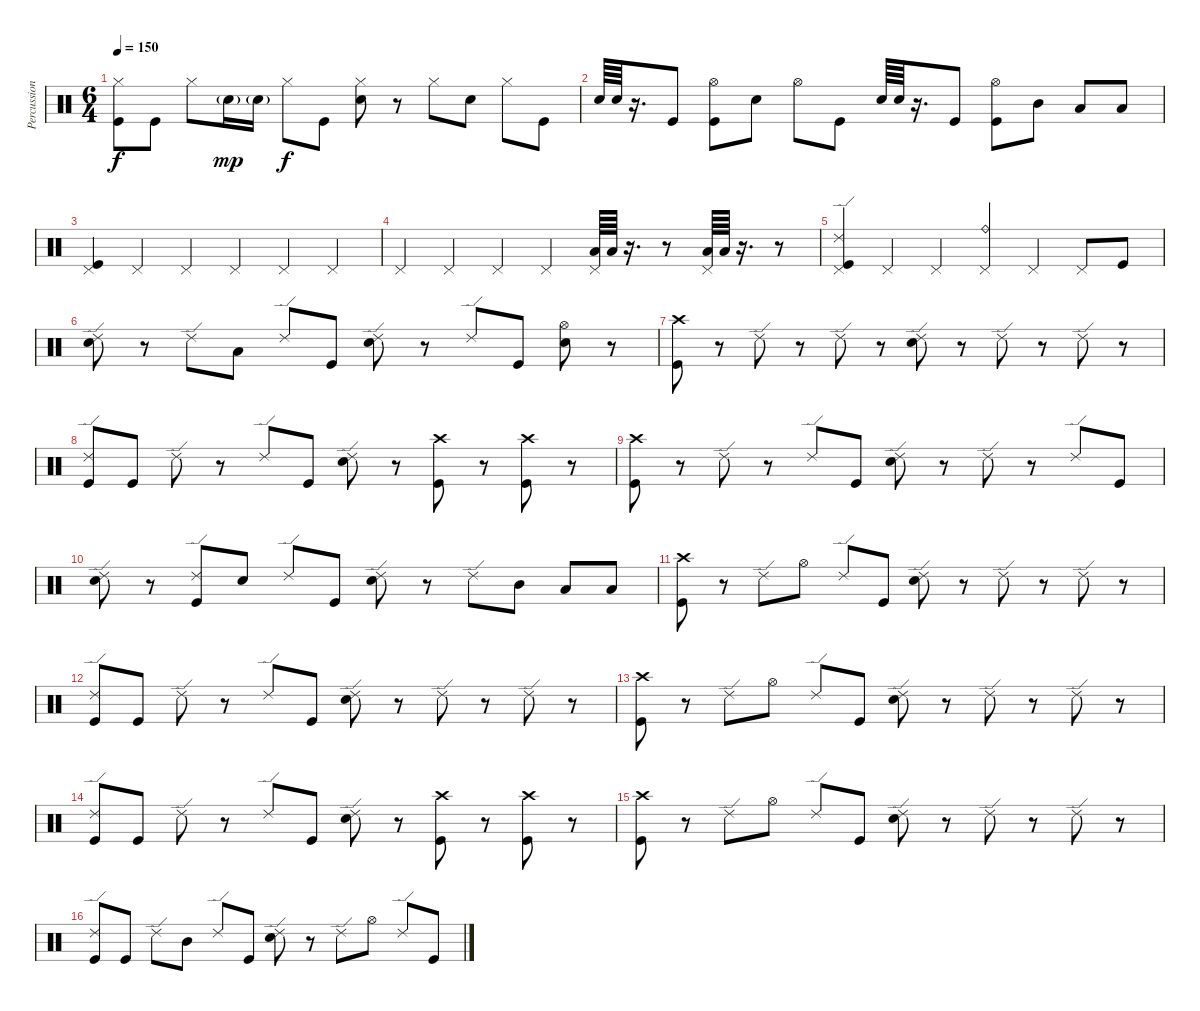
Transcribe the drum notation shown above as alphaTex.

\track ("Percussion" "Percussion") {instrument percussion}
\staff {score}
\articulation defaults
\ts (6 4)
\tempo 150
\clef neutral
\ks c
("Hi-Hat (closed)" "Kick (hit)").8{dy f} "Kick (hit)".8 "Hi-Hat (closed)".8 "Snare (hit) 2"{g}.16{dy mp} "Snare (hit) 2"{g}.16 "Hi-Hat (closed)".8{dy f} "Kick (hit)".8 ("Hi-Hat (closed)" "Snare (hit) 2").8 r.8 "Hi-Hat (closed)".8 "Snare (hit) 2".8 "Hi-Hat (closed)".8 "Kick (hit)".8 |
"Snare (hit) 2".64 "Snare (hit) 2".64 r.16{d} "Kick (hit)".8 ("Hi-Hat (open)" "Kick (hit)").8 "Snare (hit) 2".8 "Hi-Hat (open)".8 "Kick (hit)".8 "Snare (hit) 2".64 "Snare (hit) 2".64 r.16{d} "Kick (hit)".8 ("Hi-Hat (open)" "Kick (hit)").8 "Mid Tom (hit)".8 "Low Tom (hit)".8 "Low Tom (hit)".8 |
("Pedal Hi-Hat (hit)" "Kick (hit)").4 "Pedal Hi-Hat (hit)".4 "Pedal Hi-Hat (hit)".4 "Pedal Hi-Hat (hit)".4 "Pedal Hi-Hat (hit)".4 "Pedal Hi-Hat (hit)".4 |
"Pedal Hi-Hat (hit)".4 "Pedal Hi-Hat (hit)".4 "Pedal Hi-Hat (hit)".4 "Pedal Hi-Hat (hit)".4 ("Pedal Hi-Hat (hit)" "Low Tom (hit)").64 "Low Tom (hit)".64 r.16{d} r.8 ("Pedal Hi-Hat (hit)" "Low Floor Tom (hit)").64 "Low Floor Tom (hit)".64 r.16{d} r.8 |
("Ride (edge) 2" "Pedal Hi-Hat (hit)" "Kick (hit)").4 "Pedal Hi-Hat (hit)".4 "Pedal Hi-Hat (hit)".4 ("Ride (bell)" "Pedal Hi-Hat (hit)").4 "Pedal Hi-Hat (hit)".4 "Pedal Hi-Hat (hit)".8 "Kick (hit)".8 |
("Ride (edge) 2" "Snare (hit) 2").8 r.8 "Ride (edge) 2".8 "Low Tom (hit)".8 "Ride (edge) 2".8 "Kick (hit)".8 ("Ride (edge) 2" "Snare (hit) 2").8 r.8 "Ride (edge) 2".8 "Kick (hit)".8 ("Hi-Hat (open)" "Snare (hit) 2").8 r.8 |
("Crash high (hit)" "Kick (hit)").8 r.8 "Ride (edge) 2".8 r.8 "Ride (edge) 2".8 r.8 ("Ride (edge) 2" "Snare (hit) 2").8 r.8 "Ride (edge) 2".8 r.8 "Ride (edge) 2".8 r.8 |
("Ride (edge) 2" "Kick (hit)").8 "Kick (hit)".8 "Ride (edge) 2".8 r.8 "Ride (edge) 2".8 "Kick (hit)".8 ("Ride (edge) 2" "Snare (hit) 2").8 r.8 ("Crash high (hit)" "Kick (hit)").8 r.8 ("Crash high (hit)" "Kick (hit)").8 r.8 |
("Crash high (hit)" "Kick (hit)").8 r.8 "Ride (edge) 2".8 r.8 "Ride (edge) 2".8 "Kick (hit)".8 ("Ride (edge) 2" "Snare (hit) 2").8 r.8 "Ride (edge) 2".8 r.8 "Ride (edge) 2".8 "Kick (hit)".8 |
("Ride (edge) 2" "Snare (hit) 2").8 r.8 ("Ride (edge) 2" "Kick (hit)").8 "Snare (hit) 2".8 "Ride (edge) 2".8 "Kick (hit)".8 ("Ride (edge) 2" "Snare (hit) 2").8 r.8 "Ride (edge) 2".8 "Mid Tom (hit)".8 "Low Tom (hit)".8 "Low Tom (hit)".8 |
("Crash high (hit)" "Kick (hit)").8 r.8 "Ride (edge) 2".8 "Hi-Hat (open)".8 "Ride (edge) 2".8 "Kick (hit)".8 ("Ride (edge) 2" "Snare (hit) 2").8 r.8 "Ride (edge) 2".8 r.8 "Ride (edge) 2".8 r.8 |
("Ride (edge) 2" "Kick (hit)").8 "Kick (hit)".8 "Ride (edge) 2".8 r.8 "Ride (edge) 2".8 "Kick (hit)".8 ("Ride (edge) 2" "Snare (hit) 2").8 r.8 "Ride (edge) 2".8 r.8 "Ride (edge) 2".8 r.8 |
("Crash high (hit)" "Kick (hit)").8 r.8 "Ride (edge) 2".8 "Hi-Hat (open)".8 "Ride (edge) 2".8 "Kick (hit)".8 ("Ride (edge) 2" "Snare (hit) 2").8 r.8 "Ride (edge) 2".8 r.8 "Ride (edge) 2".8 r.8 |
("Ride (edge) 2" "Kick (hit)").8 "Kick (hit)".8 "Ride (edge) 2".8 r.8 "Ride (edge) 2".8 "Kick (hit)".8 ("Ride (edge) 2" "Snare (hit) 2").8 r.8 ("Crash high (hit)" "Kick (hit)").8 r.8 ("Crash high (hit)" "Kick (hit)").8 r.8 |
("Crash high (hit)" "Kick (hit)").8 r.8 "Ride (edge) 2".8 "Hi-Hat (open)".8 "Ride (edge) 2".8 "Kick (hit)".8 ("Ride (edge) 2" "Snare (hit) 2").8 r.8 "Ride (edge) 2".8 r.8 "Ride (edge) 2".8 r.8 |
("Ride (edge) 2" "Kick (hit)").8 "Kick (hit)".8 "Ride (edge) 2".8 "Mid Tom (hit)".8 "Ride (edge) 2".8 "Kick (hit)".8 ("Ride (edge) 2" "Snare (hit) 2").8 r.8 "Ride (edge) 2".8 "Hi-Hat (open)".8 "Ride (edge) 2".8 "Kick (hit)".8
